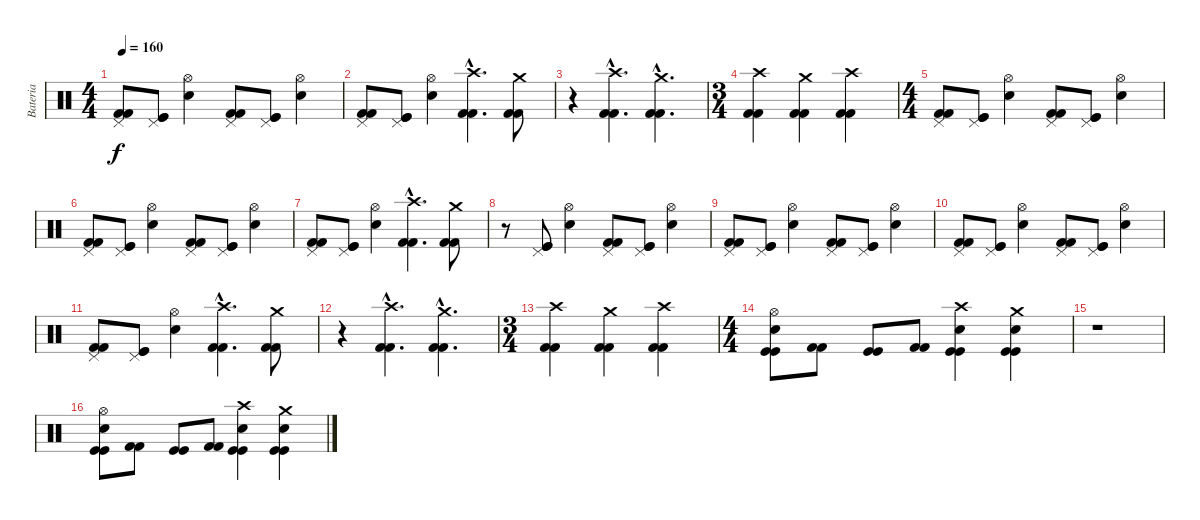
\track ("Bateria" "Bateria") {instrument percussion}
\staff {score}
\articulation defaults
\ts (4 4)
\tempo 160
\clef neutral
\ks c
("Kick (hit) 2" "Kick (hit) 2" "Pedal Hi-Hat (hit)").8{dy f} ("Kick (hit)" "Kick (hit)" "Pedal Hi-Hat (hit)").8 ("Snare (hit) 2" "Hi-Hat (open)").4 ("Kick (hit) 2" "Kick (hit) 2" "Pedal Hi-Hat (hit)").8 ("Kick (hit)" "Kick (hit)" "Pedal Hi-Hat (hit)").8 ("Snare (hit) 2" "Hi-Hat (open)").4 |
("Kick (hit) 2" "Kick (hit) 2" "Pedal Hi-Hat (hit)").8 ("Kick (hit)" "Kick (hit)" "Pedal Hi-Hat (hit)").8 ("Snare (hit) 2" "Hi-Hat (open)").4 ("Kick (hit) 2"{hac} "Kick (hit) 2"{hac} "Crash high (hit)"{hac}).4{d} ("Kick (hit) 2" "Kick (hit) 2" "Crash medium (hit)").8 |
r.4 ("Kick (hit) 2"{hac} "Kick (hit) 2"{hac} "Crash high (hit)"{hac}).4{d} ("Kick (hit) 2"{hac} "Kick (hit) 2"{hac} "Crash medium (hit)"{hac}).4{d} |
\ts (3 4)
("Kick (hit) 2" "Kick (hit) 2" "Crash high (hit)").4 ("Kick (hit) 2" "Kick (hit) 2" "Crash medium (hit)").4 ("Kick (hit) 2" "Kick (hit) 2" "Crash high (hit)").4 |
\ts (4 4)
("Kick (hit) 2" "Kick (hit) 2" "Pedal Hi-Hat (hit)").8 ("Kick (hit)" "Kick (hit)" "Pedal Hi-Hat (hit)").8 ("Snare (hit) 2" "Hi-Hat (open)").4 ("Kick (hit) 2" "Kick (hit) 2" "Pedal Hi-Hat (hit)").8 ("Kick (hit)" "Kick (hit)" "Pedal Hi-Hat (hit)").8 ("Snare (hit) 2" "Hi-Hat (open)").4 |
("Kick (hit) 2" "Kick (hit) 2" "Pedal Hi-Hat (hit)").8 ("Kick (hit)" "Kick (hit)" "Pedal Hi-Hat (hit)").8 ("Snare (hit) 2" "Hi-Hat (open)").4 ("Kick (hit) 2" "Kick (hit) 2" "Pedal Hi-Hat (hit)").8 ("Kick (hit)" "Kick (hit)" "Pedal Hi-Hat (hit)").8 ("Snare (hit) 2" "Hi-Hat (open)").4 |
("Kick (hit) 2" "Kick (hit) 2" "Pedal Hi-Hat (hit)").8 ("Kick (hit)" "Kick (hit)" "Pedal Hi-Hat (hit)").8 ("Snare (hit) 2" "Hi-Hat (open)").4 ("Kick (hit) 2"{hac} "Kick (hit) 2"{hac} "Crash high (hit)"{hac}).4{d} ("Kick (hit) 2" "Kick (hit) 2" "Crash medium (hit)").8 |
r.8 ("Kick (hit)" "Kick (hit)" "Pedal Hi-Hat (hit)").8 ("Snare (hit) 2" "Hi-Hat (open)").4 ("Kick (hit) 2" "Kick (hit) 2" "Pedal Hi-Hat (hit)").8 ("Kick (hit)" "Kick (hit)" "Pedal Hi-Hat (hit)").8 ("Snare (hit) 2" "Hi-Hat (open)").4 |
("Kick (hit) 2" "Kick (hit) 2" "Pedal Hi-Hat (hit)").8 ("Kick (hit)" "Kick (hit)" "Pedal Hi-Hat (hit)").8 ("Snare (hit) 2" "Hi-Hat (open)").4 ("Kick (hit) 2" "Kick (hit) 2" "Pedal Hi-Hat (hit)").8 ("Kick (hit)" "Kick (hit)" "Pedal Hi-Hat (hit)").8 ("Snare (hit) 2" "Hi-Hat (open)").4 |
("Kick (hit) 2" "Kick (hit) 2" "Pedal Hi-Hat (hit)").8 ("Kick (hit)" "Kick (hit)" "Pedal Hi-Hat (hit)").8 ("Snare (hit) 2" "Hi-Hat (open)").4 ("Kick (hit) 2" "Kick (hit) 2" "Pedal Hi-Hat (hit)").8 ("Kick (hit)" "Kick (hit)" "Pedal Hi-Hat (hit)").8 ("Snare (hit) 2" "Hi-Hat (open)").4 |
("Kick (hit) 2" "Kick (hit) 2" "Pedal Hi-Hat (hit)").8 ("Kick (hit)" "Kick (hit)" "Pedal Hi-Hat (hit)").8 ("Snare (hit) 2" "Hi-Hat (open)").4 ("Kick (hit) 2"{hac} "Kick (hit) 2"{hac} "Crash high (hit)"{hac}).4{d} ("Kick (hit) 2" "Kick (hit) 2" "Crash medium (hit)").8 |
r.4 ("Kick (hit) 2"{hac} "Kick (hit) 2"{hac} "Crash high (hit)"{hac}).4{d} ("Kick (hit) 2"{hac} "Kick (hit) 2"{hac} "Crash medium (hit)"{hac}).4{d} |
\ts (3 4)
("Kick (hit) 2" "Kick (hit) 2" "Crash high (hit)").4 ("Kick (hit) 2" "Kick (hit) 2" "Crash medium (hit)").4 ("Kick (hit) 2" "Kick (hit) 2" "Crash high (hit)").4 |
\ts (4 4)
("Kick (hit)" "Kick (hit)" "Snare (hit) 2" "Hi-Hat (open)").8 ("Kick (hit) 2" "Kick (hit) 2").8 ("Kick (hit)" "Kick (hit)").8 ("Kick (hit) 2" "Kick (hit) 2").8 ("Kick (hit)" "Kick (hit)" "Snare (hit) 2" "Crash high (hit)").4 ("Kick (hit)" "Kick (hit)" "Snare (hit) 2" "Crash medium (hit)").4 |
r.1 |
("Kick (hit)" "Kick (hit)" "Snare (hit) 2" "Hi-Hat (open)").8 ("Kick (hit) 2" "Kick (hit) 2").8 ("Kick (hit)" "Kick (hit)").8 ("Kick (hit) 2" "Kick (hit) 2").8 ("Kick (hit)" "Kick (hit)" "Snare (hit) 2" "Crash high (hit)").4 ("Kick (hit)" "Kick (hit)" "Snare (hit) 2" "Crash medium (hit)").4
